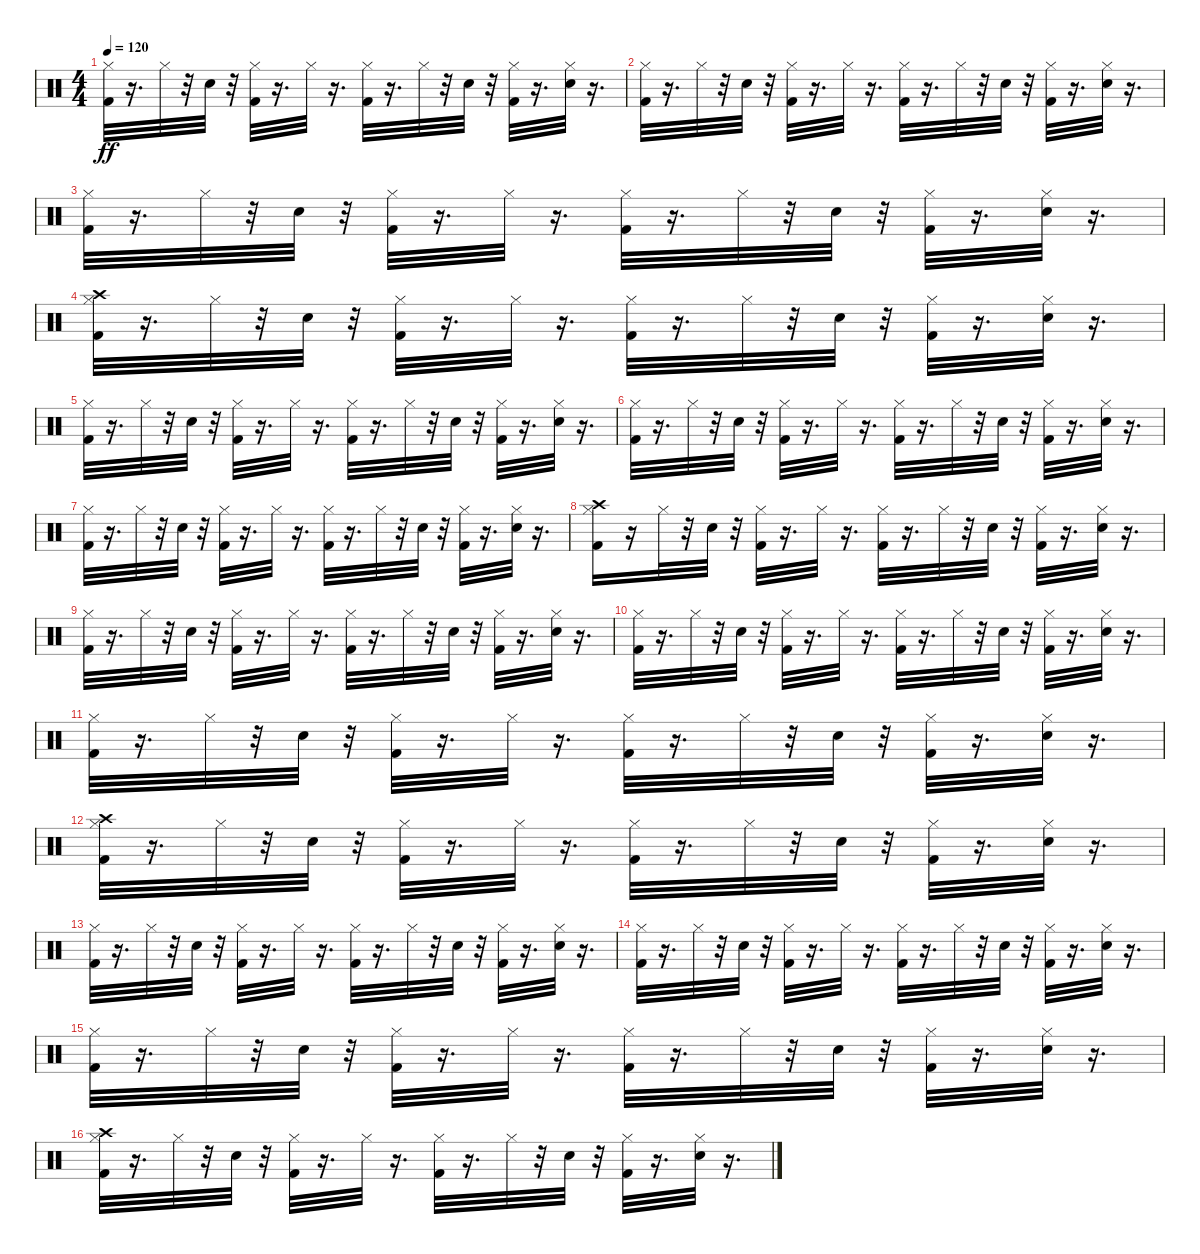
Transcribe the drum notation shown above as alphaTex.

\track "" {instrument percussion}
\staff {score}
\articulation defaults
\ts (4 4)
\tempo 120
\clef neutral
\ks c
("Kick (hit) 2" "Hi-Hat (closed)").32{dy ff} r.16{d} "Hi-Hat (closed)".32 r.32 "Snare (hit) 2".32 r.32 ("Kick (hit) 2" "Hi-Hat (closed)").32 r.16{d} "Hi-Hat (closed)".32 r.16{d} ("Kick (hit) 2" "Hi-Hat (closed)").32 r.16{d} "Hi-Hat (closed)".32 r.32 "Snare (hit) 2".32 r.32 ("Kick (hit) 2" "Hi-Hat (closed)").32 r.16{d} ("Snare (hit) 2" "Hi-Hat (closed)").32 r.16{d} |
("Kick (hit) 2" "Hi-Hat (closed)").32 r.16{d} "Hi-Hat (closed)".32 r.32 "Snare (hit) 2".32 r.32 ("Kick (hit) 2" "Hi-Hat (closed)").32 r.16{d} "Hi-Hat (closed)".32 r.16{d} ("Kick (hit) 2" "Hi-Hat (closed)").32 r.16{d} "Hi-Hat (closed)".32 r.32 "Snare (hit) 2".32 r.32 ("Kick (hit) 2" "Hi-Hat (closed)").32 r.16{d} ("Snare (hit) 2" "Hi-Hat (closed)").32 r.16{d} |
("Kick (hit) 2" "Hi-Hat (closed)").32 r.16{d} "Hi-Hat (closed)".32 r.32 "Snare (hit) 2".32 r.32 ("Kick (hit) 2" "Hi-Hat (closed)").32 r.16{d} "Hi-Hat (closed)".32 r.16{d} ("Kick (hit) 2" "Hi-Hat (closed)").32 r.16{d} "Hi-Hat (closed)".32 r.32 "Snare (hit) 2".32 r.32 ("Kick (hit) 2" "Hi-Hat (closed)").32 r.16{d} ("Snare (hit) 2" "Hi-Hat (closed)").32 r.16{d} |
("Kick (hit) 2" "Hi-Hat (closed)" "Crash high (hit)").32 r.16{d} "Hi-Hat (closed)".32 r.32 "Snare (hit) 2".32 r.32 ("Kick (hit) 2" "Hi-Hat (closed)").32 r.16{d} "Hi-Hat (closed)".32 r.16{d} ("Kick (hit) 2" "Hi-Hat (closed)").32 r.16{d} "Hi-Hat (closed)".32 r.32 "Snare (hit) 2".32 r.32 ("Kick (hit) 2" "Hi-Hat (closed)").32 r.16{d} ("Snare (hit) 2" "Hi-Hat (closed)").32 r.16{d} |
("Kick (hit) 2" "Hi-Hat (closed)").32 r.16{d} "Hi-Hat (closed)".32 r.32 "Snare (hit) 2".32 r.32 ("Kick (hit) 2" "Hi-Hat (closed)").32 r.16{d} "Hi-Hat (closed)".32 r.16{d} ("Kick (hit) 2" "Hi-Hat (closed)").32 r.16{d} "Hi-Hat (closed)".32 r.32 "Snare (hit) 2".32 r.32 ("Kick (hit) 2" "Hi-Hat (closed)").32 r.16{d} ("Snare (hit) 2" "Hi-Hat (closed)").32 r.16{d} |
("Kick (hit) 2" "Hi-Hat (closed)").32 r.16{d} "Hi-Hat (closed)".32 r.32 "Snare (hit) 2".32 r.32 ("Kick (hit) 2" "Hi-Hat (closed)").32 r.16{d} "Hi-Hat (closed)".32 r.16{d} ("Kick (hit) 2" "Hi-Hat (closed)").32 r.16{d} "Hi-Hat (closed)".32 r.32 "Snare (hit) 2".32 r.32 ("Kick (hit) 2" "Hi-Hat (closed)").32 r.16{d} ("Snare (hit) 2" "Hi-Hat (closed)").32 r.16{d} |
("Kick (hit) 2" "Hi-Hat (closed)").32 r.16{d} "Hi-Hat (closed)".32 r.32 "Snare (hit) 2".32 r.32 ("Kick (hit) 2" "Hi-Hat (closed)").32 r.16{d} "Hi-Hat (closed)".32 r.16{d} ("Kick (hit) 2" "Hi-Hat (closed)").32 r.16{d} "Hi-Hat (closed)".32 r.32 "Snare (hit) 2".32 r.32 ("Kick (hit) 2" "Hi-Hat (closed)").32 r.16{d} ("Snare (hit) 2" "Hi-Hat (closed)").32 r.16{d} |
("Kick (hit) 2" "Hi-Hat (closed)" "Crash high (hit)").16 r.16 "Hi-Hat (closed)".32 r.32 "Snare (hit) 2".32 r.32 ("Kick (hit) 2" "Hi-Hat (closed)").32 r.16{d} "Hi-Hat (closed)".32 r.16{d} ("Kick (hit) 2" "Hi-Hat (closed)").32 r.16{d} "Hi-Hat (closed)".32 r.32 "Snare (hit) 2".32 r.32 ("Kick (hit) 2" "Hi-Hat (closed)").32 r.16{d} ("Snare (hit) 2" "Hi-Hat (closed)").32 r.16{d} |
("Kick (hit) 2" "Hi-Hat (closed)").32 r.16{d} "Hi-Hat (closed)".32 r.32 "Snare (hit) 2".32 r.32 ("Kick (hit) 2" "Hi-Hat (closed)").32 r.16{d} "Hi-Hat (closed)".32 r.16{d} ("Kick (hit) 2" "Hi-Hat (closed)").32 r.16{d} "Hi-Hat (closed)".32 r.32 "Snare (hit) 2".32 r.32 ("Kick (hit) 2" "Hi-Hat (closed)").32 r.16{d} ("Snare (hit) 2" "Hi-Hat (closed)").32 r.16{d} |
("Kick (hit) 2" "Hi-Hat (closed)").32 r.16{d} "Hi-Hat (closed)".32 r.32 "Snare (hit) 2".32 r.32 ("Kick (hit) 2" "Hi-Hat (closed)").32 r.16{d} "Hi-Hat (closed)".32 r.16{d} ("Kick (hit) 2" "Hi-Hat (closed)").32 r.16{d} "Hi-Hat (closed)".32 r.32 "Snare (hit) 2".32 r.32 ("Kick (hit) 2" "Hi-Hat (closed)").32 r.16{d} ("Snare (hit) 2" "Hi-Hat (closed)").32 r.16{d} |
("Kick (hit) 2" "Hi-Hat (closed)").32 r.16{d} "Hi-Hat (closed)".32 r.32 "Snare (hit) 2".32 r.32 ("Kick (hit) 2" "Hi-Hat (closed)").32 r.16{d} "Hi-Hat (closed)".32 r.16{d} ("Kick (hit) 2" "Hi-Hat (closed)").32 r.16{d} "Hi-Hat (closed)".32 r.32 "Snare (hit) 2".32 r.32 ("Kick (hit) 2" "Hi-Hat (closed)").32 r.16{d} ("Snare (hit) 2" "Hi-Hat (closed)").32 r.16{d} |
("Kick (hit) 2" "Hi-Hat (closed)" "Crash high (hit)").32 r.16{d} "Hi-Hat (closed)".32 r.32 "Snare (hit) 2".32 r.32 ("Kick (hit) 2" "Hi-Hat (closed)").32 r.16{d} "Hi-Hat (closed)".32 r.16{d} ("Kick (hit) 2" "Hi-Hat (closed)").32 r.16{d} "Hi-Hat (closed)".32 r.32 "Snare (hit) 2".32 r.32 ("Kick (hit) 2" "Hi-Hat (closed)").32 r.16{d} ("Snare (hit) 2" "Hi-Hat (closed)").32 r.16{d} |
("Kick (hit) 2" "Hi-Hat (closed)").32 r.16{d} "Hi-Hat (closed)".32 r.32 "Snare (hit) 2".32 r.32 ("Kick (hit) 2" "Hi-Hat (closed)").32 r.16{d} "Hi-Hat (closed)".32 r.16{d} ("Kick (hit) 2" "Hi-Hat (closed)").32 r.16{d} "Hi-Hat (closed)".32 r.32 "Snare (hit) 2".32 r.32 ("Kick (hit) 2" "Hi-Hat (closed)").32 r.16{d} ("Snare (hit) 2" "Hi-Hat (closed)").32 r.16{d} |
("Kick (hit) 2" "Hi-Hat (closed)").32 r.16{d} "Hi-Hat (closed)".32 r.32 "Snare (hit) 2".32 r.32 ("Kick (hit) 2" "Hi-Hat (closed)").32 r.16{d} "Hi-Hat (closed)".32 r.16{d} ("Kick (hit) 2" "Hi-Hat (closed)").32 r.16{d} "Hi-Hat (closed)".32 r.32 "Snare (hit) 2".32 r.32 ("Kick (hit) 2" "Hi-Hat (closed)").32 r.16{d} ("Snare (hit) 2" "Hi-Hat (closed)").32 r.16{d} |
("Kick (hit) 2" "Hi-Hat (closed)").32 r.16{d} "Hi-Hat (closed)".32 r.32 "Snare (hit) 2".32 r.32 ("Kick (hit) 2" "Hi-Hat (closed)").32 r.16{d} "Hi-Hat (closed)".32 r.16{d} ("Kick (hit) 2" "Hi-Hat (closed)").32 r.16{d} "Hi-Hat (closed)".32 r.32 "Snare (hit) 2".32 r.32 ("Kick (hit) 2" "Hi-Hat (closed)").32 r.16{d} ("Snare (hit) 2" "Hi-Hat (closed)").32 r.16{d} |
("Kick (hit) 2" "Hi-Hat (closed)" "Crash high (hit)").32 r.16{d} "Hi-Hat (closed)".32 r.32 "Snare (hit) 2".32 r.32 ("Kick (hit) 2" "Hi-Hat (closed)").32 r.16{d} "Hi-Hat (closed)".32 r.16{d} ("Kick (hit) 2" "Hi-Hat (closed)").32 r.16{d} "Hi-Hat (closed)".32 r.32 "Snare (hit) 2".32 r.32 ("Kick (hit) 2" "Hi-Hat (closed)").32 r.16{d} ("Snare (hit) 2" "Hi-Hat (closed)").32 r.16{d}
